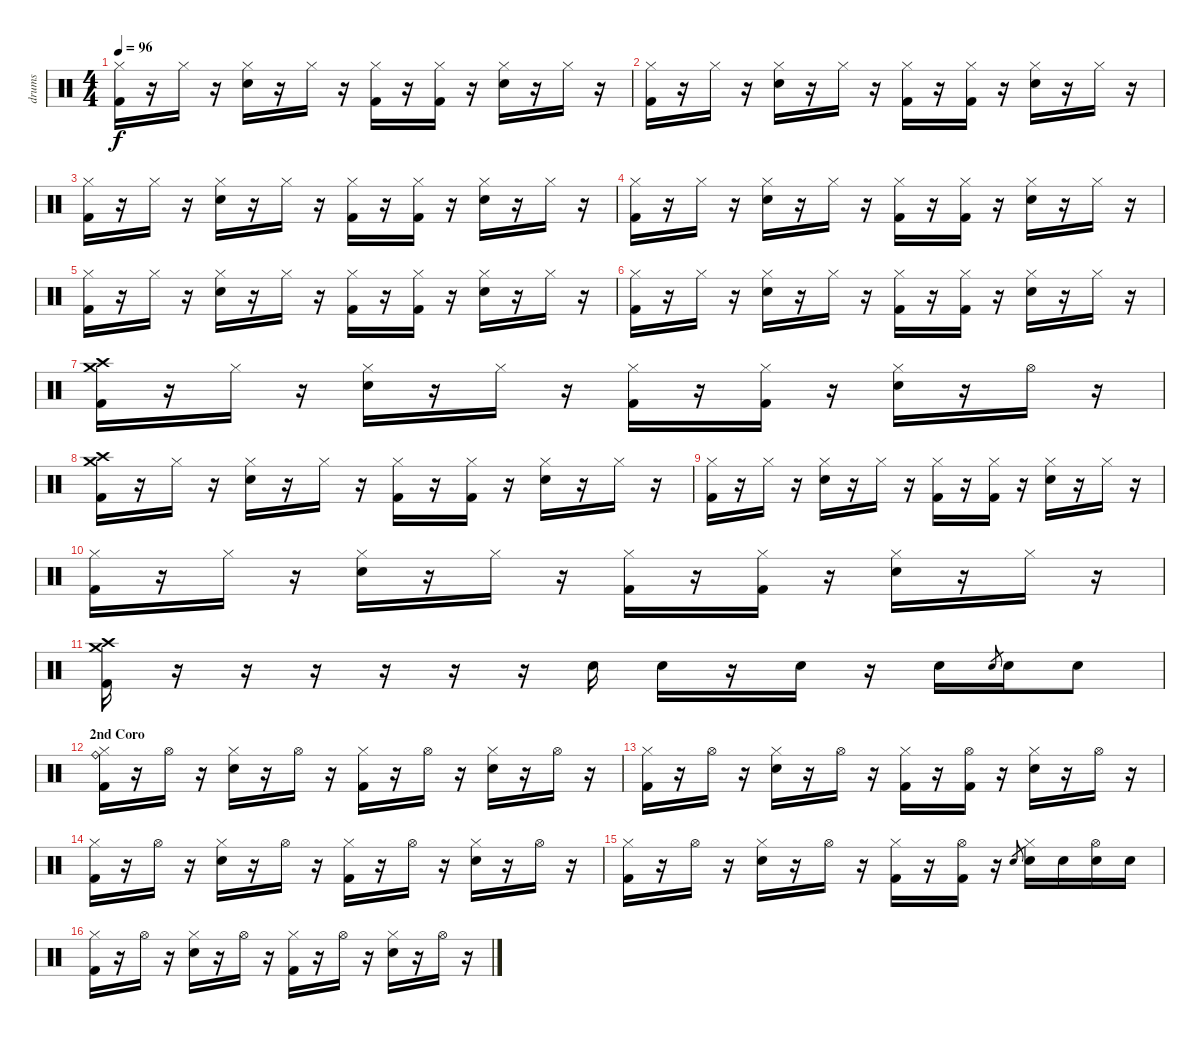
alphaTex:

\track ("drums" "drums") {instrument percussion}
\staff {score}
\articulation defaults
\ts (4 4)
\tempo 96
\clef neutral
\ks c
("Kick (hit) 2" "Hi-Hat (closed)").16{dy f} r.16 "Hi-Hat (closed)".16 r.16 ("Hi-Hat (closed)" "Electric Snare (hit)").16 r.16 "Hi-Hat (closed)".16 r.16 ("Kick (hit) 2" "Hi-Hat (closed)").16 r.16 ("Kick (hit) 2" "Hi-Hat (closed)").16 r.16 ("Hi-Hat (closed)" "Electric Snare (hit)").16 r.16 "Hi-Hat (closed)".16 r.16 |
("Kick (hit) 2" "Hi-Hat (closed)").16 r.16 "Hi-Hat (closed)".16 r.16 ("Hi-Hat (closed)" "Electric Snare (hit)").16 r.16 "Hi-Hat (closed)".16 r.16 ("Kick (hit) 2" "Hi-Hat (closed)").16 r.16 ("Kick (hit) 2" "Hi-Hat (closed)").16 r.16 ("Hi-Hat (closed)" "Electric Snare (hit)").16 r.16 "Hi-Hat (closed)".16 r.16 |
("Kick (hit) 2" "Hi-Hat (closed)").16 r.16 "Hi-Hat (closed)".16 r.16 ("Hi-Hat (closed)" "Electric Snare (hit)").16 r.16 "Hi-Hat (closed)".16 r.16 ("Kick (hit) 2" "Hi-Hat (closed)").16 r.16 ("Kick (hit) 2" "Hi-Hat (closed)").16 r.16 ("Hi-Hat (closed)" "Electric Snare (hit)").16 r.16 "Hi-Hat (closed)".16 r.16 |
("Kick (hit) 2" "Hi-Hat (closed)").16 r.16 "Hi-Hat (closed)".16 r.16 ("Hi-Hat (closed)" "Electric Snare (hit)").16 r.16 "Hi-Hat (closed)".16 r.16 ("Kick (hit) 2" "Hi-Hat (closed)").16 r.16 ("Kick (hit) 2" "Hi-Hat (closed)").16 r.16 ("Hi-Hat (closed)" "Electric Snare (hit)").16 r.16 "Hi-Hat (closed)".16 r.16 |
("Kick (hit) 2" "Hi-Hat (closed)").16 r.16 "Hi-Hat (closed)".16 r.16 ("Hi-Hat (closed)" "Electric Snare (hit)").16 r.16 "Hi-Hat (closed)".16 r.16 ("Kick (hit) 2" "Hi-Hat (closed)").16 r.16 ("Kick (hit) 2" "Hi-Hat (closed)").16 r.16 ("Hi-Hat (closed)" "Electric Snare (hit)").16 r.16 "Hi-Hat (closed)".16 r.16 |
("Kick (hit) 2" "Hi-Hat (closed)").16 r.16 "Hi-Hat (closed)".16 r.16 ("Hi-Hat (closed)" "Electric Snare (hit)").16 r.16 "Hi-Hat (closed)".16 r.16 ("Kick (hit) 2" "Hi-Hat (closed)").16 r.16 ("Kick (hit) 2" "Hi-Hat (closed)").16 r.16 ("Hi-Hat (closed)" "Electric Snare (hit)").16 r.16 "Hi-Hat (closed)".16 r.16 |
("Kick (hit) 2" "Crash high (hit)" "Crash medium (hit)").16 r.16 "Hi-Hat (closed)".16 r.16 ("Hi-Hat (closed)" "Electric Snare (hit)").16 r.16 "Hi-Hat (closed)".16 r.16 ("Kick (hit) 2" "Hi-Hat (closed)").16 r.16 ("Kick (hit) 2" "Hi-Hat (closed)").16 r.16 ("Hi-Hat (closed)" "Electric Snare (hit)").16 r.16 "Hi-Hat (open)".16 r.16 |
("Kick (hit) 2" "Crash high (hit)" "Crash medium (hit)").16 r.16 "Hi-Hat (closed)".16 r.16 ("Hi-Hat (closed)" "Electric Snare (hit)").16 r.16 "Hi-Hat (closed)".16 r.16 ("Kick (hit) 2" "Hi-Hat (closed)").16 r.16 ("Kick (hit) 2" "Hi-Hat (closed)").16 r.16 ("Hi-Hat (closed)" "Electric Snare (hit)").16 r.16 "Hi-Hat (closed)".16 r.16 |
("Kick (hit) 2" "Hi-Hat (closed)").16 r.16 "Hi-Hat (closed)".16 r.16 ("Hi-Hat (closed)" "Electric Snare (hit)").16 r.16 "Hi-Hat (closed)".16 r.16 ("Kick (hit) 2" "Hi-Hat (closed)").16 r.16 ("Kick (hit) 2" "Hi-Hat (closed)").16 r.16 ("Hi-Hat (closed)" "Electric Snare (hit)").16 r.16 "Hi-Hat (closed)".16 r.16 |
("Kick (hit) 2" "Hi-Hat (closed)").16 r.16 "Hi-Hat (closed)".16 r.16 ("Hi-Hat (closed)" "Electric Snare (hit)").16 r.16 "Hi-Hat (closed)".16 r.16 ("Kick (hit) 2" "Hi-Hat (closed)").16 r.16 ("Kick (hit) 2" "Hi-Hat (closed)").16 r.16 ("Hi-Hat (closed)" "Electric Snare (hit)").16 r.16 "Hi-Hat (closed)".16 r.16 |
("Kick (hit) 2" "Crash high (hit)" "Crash medium (hit)").16 r.16 r.16 r.16 r.16 r.16 r.16 "Electric Snare (hit)".16 "Electric Snare (hit)".16 r.16 "Electric Snare (hit)".16 r.16 "Electric Snare (hit)".16 "Electric Snare (hit)".8{gr} "Electric Snare (hit)".16 "Electric Snare (hit)".8 |
\section ("" "2nd Coro")
("Kick (hit) 2" "Hi-Hat (closed)" "Ride (bell)").16 r.16 "Hi-Hat (open)".16 r.16 ("Hi-Hat (closed)" "Electric Snare (hit)").16 r.16 "Hi-Hat (open)".16 r.16 ("Kick (hit) 2" "Hi-Hat (closed)").16 r.16 "Hi-Hat (open)".16 r.16 ("Hi-Hat (closed)" "Electric Snare (hit)").16 r.16 "Hi-Hat (open)".16 r.16 |
("Kick (hit) 2" "Hi-Hat (closed)").16 r.16 "Hi-Hat (open)".16 r.16 ("Hi-Hat (closed)" "Electric Snare (hit)").16 r.16 "Hi-Hat (open)".16 r.16 ("Kick (hit) 2" "Hi-Hat (closed)").16 r.16 ("Kick (hit) 2" "Hi-Hat (open)").16 r.16 ("Hi-Hat (closed)" "Electric Snare (hit)").16 r.16 "Hi-Hat (open)".16 r.16 |
("Kick (hit) 2" "Hi-Hat (closed)").16 r.16 "Hi-Hat (open)".16 r.16 ("Hi-Hat (closed)" "Electric Snare (hit)").16 r.16 "Hi-Hat (open)".16 r.16 ("Kick (hit) 2" "Hi-Hat (closed)").16 r.16 "Hi-Hat (open)".16 r.16 ("Hi-Hat (closed)" "Electric Snare (hit)").16 r.16 "Hi-Hat (open)".16 r.16 |
("Kick (hit) 2" "Hi-Hat (closed)").16 r.16 "Hi-Hat (open)".16 r.16 ("Hi-Hat (closed)" "Electric Snare (hit)").16 r.16 "Hi-Hat (open)".16 r.16 ("Kick (hit) 2" "Hi-Hat (closed)").16 r.16 ("Kick (hit) 2" "Hi-Hat (open)").16 r.16 "Electric Snare (hit)".8{gr} ("Hi-Hat (closed)" "Electric Snare (hit)").16 "Electric Snare (hit)".16 ("Hi-Hat (open)" "Electric Snare (hit)").16 "Electric Snare (hit)".16 |
("Kick (hit) 2" "Hi-Hat (closed)").16 r.16 "Hi-Hat (open)".16 r.16 ("Hi-Hat (closed)" "Electric Snare (hit)").16 r.16 "Hi-Hat (open)".16 r.16 ("Kick (hit) 2" "Hi-Hat (closed)").16 r.16 "Hi-Hat (open)".16 r.16 ("Hi-Hat (closed)" "Electric Snare (hit)").16 r.16 "Hi-Hat (open)".16 r.16
